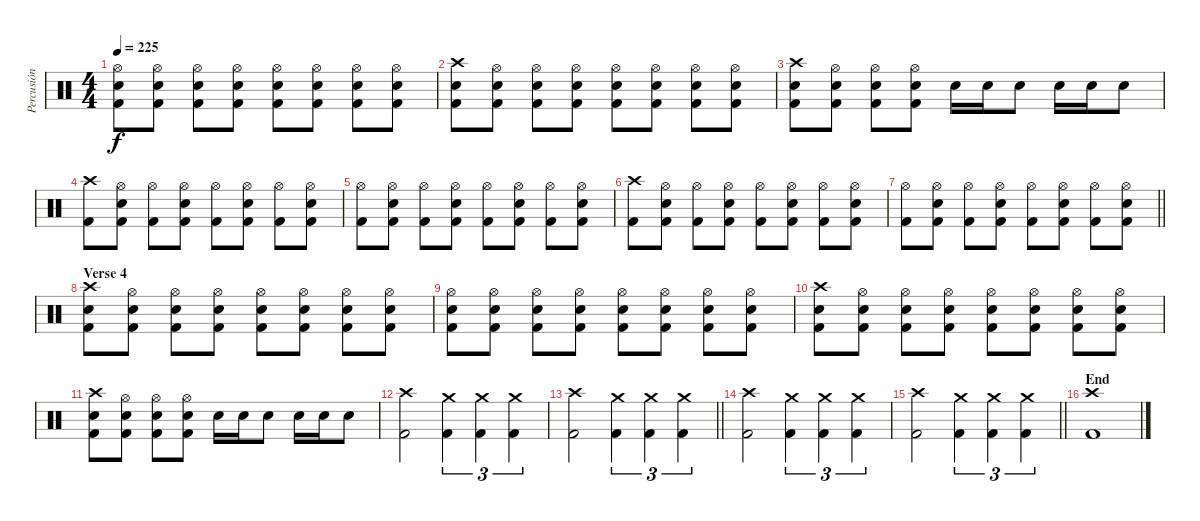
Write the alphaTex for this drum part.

\track ("Percusión" "Percusión") {instrument percussion}
\staff {score}
\articulation defaults
\ts (4 4)
\tempo 225
\clef neutral
\ks c
("Hi-Hat (open)" "Electric Snare (hit)" "Kick (hit) 2").8{dy f} ("Hi-Hat (open)" "Electric Snare (hit)" "Kick (hit) 2").8 ("Hi-Hat (open)" "Electric Snare (hit)" "Kick (hit) 2").8 ("Hi-Hat (open)" "Electric Snare (hit)" "Kick (hit) 2").8 ("Hi-Hat (open)" "Electric Snare (hit)" "Kick (hit) 2").8 ("Hi-Hat (open)" "Electric Snare (hit)" "Kick (hit) 2").8 ("Hi-Hat (open)" "Electric Snare (hit)" "Kick (hit) 2").8 ("Hi-Hat (open)" "Electric Snare (hit)" "Kick (hit) 2").8 |
("Crash high (hit)" "Electric Snare (hit)" "Kick (hit) 2").8 ("Hi-Hat (open)" "Electric Snare (hit)" "Kick (hit) 2").8 ("Hi-Hat (open)" "Electric Snare (hit)" "Kick (hit) 2").8 ("Hi-Hat (open)" "Electric Snare (hit)" "Kick (hit) 2").8 ("Hi-Hat (open)" "Electric Snare (hit)" "Kick (hit) 2").8 ("Hi-Hat (open)" "Electric Snare (hit)" "Kick (hit) 2").8 ("Hi-Hat (open)" "Electric Snare (hit)" "Kick (hit) 2").8 ("Hi-Hat (open)" "Electric Snare (hit)" "Kick (hit) 2").8 |
("Crash high (hit)" "Electric Snare (hit)" "Kick (hit) 2").8 ("Hi-Hat (open)" "Electric Snare (hit)" "Kick (hit) 2").8 ("Hi-Hat (open)" "Electric Snare (hit)" "Kick (hit) 2").8 ("Hi-Hat (open)" "Electric Snare (hit)" "Kick (hit) 2").8 "Electric Snare (hit)".16 "Electric Snare (hit)".16 "Electric Snare (hit)".8 "Electric Snare (hit)".16 "Electric Snare (hit)".16 "Electric Snare (hit)".8 |
("Crash high (hit)" "Kick (hit) 2").8 ("Hi-Hat (open)" "Electric Snare (hit)" "Kick (hit) 2").8 ("Hi-Hat (open)" "Kick (hit) 2").8 ("Hi-Hat (open)" "Electric Snare (hit)" "Kick (hit) 2").8 ("Hi-Hat (open)" "Kick (hit) 2").8 ("Hi-Hat (open)" "Electric Snare (hit)" "Kick (hit) 2").8 ("Hi-Hat (open)" "Kick (hit) 2").8 ("Hi-Hat (open)" "Electric Snare (hit)" "Kick (hit) 2").8 |
("Hi-Hat (open)" "Kick (hit) 2").8 ("Hi-Hat (open)" "Electric Snare (hit)" "Kick (hit) 2").8 ("Hi-Hat (open)" "Kick (hit) 2").8 ("Hi-Hat (open)" "Electric Snare (hit)" "Kick (hit) 2").8 ("Hi-Hat (open)" "Kick (hit) 2").8 ("Hi-Hat (open)" "Electric Snare (hit)" "Kick (hit) 2").8 ("Hi-Hat (open)" "Kick (hit) 2").8 ("Hi-Hat (open)" "Electric Snare (hit)" "Kick (hit) 2").8 |
("Crash high (hit)" "Kick (hit) 2").8 ("Hi-Hat (open)" "Electric Snare (hit)" "Kick (hit) 2").8 ("Hi-Hat (open)" "Kick (hit) 2").8 ("Hi-Hat (open)" "Electric Snare (hit)" "Kick (hit) 2").8 ("Hi-Hat (open)" "Kick (hit) 2").8 ("Hi-Hat (open)" "Electric Snare (hit)" "Kick (hit) 2").8 ("Hi-Hat (open)" "Kick (hit) 2").8 ("Hi-Hat (open)" "Electric Snare (hit)" "Kick (hit) 2").8 |
\barLineRight lightlight
("Hi-Hat (open)" "Kick (hit) 2").8 ("Hi-Hat (open)" "Electric Snare (hit)" "Kick (hit) 2").8 ("Hi-Hat (open)" "Kick (hit) 2").8 ("Hi-Hat (open)" "Electric Snare (hit)" "Kick (hit) 2").8 ("Hi-Hat (open)" "Kick (hit) 2").8 ("Hi-Hat (open)" "Electric Snare (hit)" "Kick (hit) 2").8 ("Hi-Hat (open)" "Kick (hit) 2").8 ("Hi-Hat (open)" "Electric Snare (hit)" "Kick (hit) 2").8 |
\section ("" "Verse 4")
("Crash high (hit)" "Electric Snare (hit)" "Kick (hit) 2").8 ("Hi-Hat (open)" "Electric Snare (hit)" "Kick (hit) 2").8 ("Hi-Hat (open)" "Electric Snare (hit)" "Kick (hit) 2").8 ("Hi-Hat (open)" "Electric Snare (hit)" "Kick (hit) 2").8 ("Hi-Hat (open)" "Electric Snare (hit)" "Kick (hit) 2").8 ("Hi-Hat (open)" "Electric Snare (hit)" "Kick (hit) 2").8 ("Hi-Hat (open)" "Electric Snare (hit)" "Kick (hit) 2").8 ("Hi-Hat (open)" "Electric Snare (hit)" "Kick (hit) 2").8 |
("Hi-Hat (open)" "Electric Snare (hit)" "Kick (hit) 2").8 ("Hi-Hat (open)" "Electric Snare (hit)" "Kick (hit) 2").8 ("Hi-Hat (open)" "Electric Snare (hit)" "Kick (hit) 2").8 ("Hi-Hat (open)" "Electric Snare (hit)" "Kick (hit) 2").8 ("Hi-Hat (open)" "Electric Snare (hit)" "Kick (hit) 2").8 ("Hi-Hat (open)" "Electric Snare (hit)" "Kick (hit) 2").8 ("Hi-Hat (open)" "Electric Snare (hit)" "Kick (hit) 2").8 ("Hi-Hat (open)" "Electric Snare (hit)" "Kick (hit) 2").8 |
("Crash high (hit)" "Electric Snare (hit)" "Kick (hit) 2").8 ("Hi-Hat (open)" "Electric Snare (hit)" "Kick (hit) 2").8 ("Hi-Hat (open)" "Electric Snare (hit)" "Kick (hit) 2").8 ("Hi-Hat (open)" "Electric Snare (hit)" "Kick (hit) 2").8 ("Hi-Hat (open)" "Electric Snare (hit)" "Kick (hit) 2").8 ("Hi-Hat (open)" "Electric Snare (hit)" "Kick (hit) 2").8 ("Hi-Hat (open)" "Electric Snare (hit)" "Kick (hit) 2").8 ("Hi-Hat (open)" "Electric Snare (hit)" "Kick (hit) 2").8 |
("Crash high (hit)" "Electric Snare (hit)" "Kick (hit) 2").8 ("Hi-Hat (open)" "Electric Snare (hit)" "Kick (hit) 2").8 ("Hi-Hat (open)" "Electric Snare (hit)" "Kick (hit) 2").8 ("Hi-Hat (open)" "Electric Snare (hit)" "Kick (hit) 2").8 "Electric Snare (hit)".16 "Electric Snare (hit)".16 "Electric Snare (hit)".8 "Electric Snare (hit)".16 "Electric Snare (hit)".16 "Electric Snare (hit)".8 |
("Crash high (hit)" "Kick (hit) 2").2 ("Crash medium (hit)" "Kick (hit) 2").4{tu (3 2)} ("Crash medium (hit)" "Kick (hit) 2").4{tu (3 2)} ("Crash medium (hit)" "Kick (hit) 2").4{tu (3 2)} |
\barLineRight lightlight
("Crash high (hit)" "Kick (hit) 2").2 ("Crash medium (hit)" "Kick (hit) 2").4{tu (3 2)} ("Crash medium (hit)" "Kick (hit) 2").4{tu (3 2)} ("Crash medium (hit)" "Kick (hit) 2").4{tu (3 2)} |
("Crash high (hit)" "Kick (hit) 2").2 ("Crash medium (hit)" "Kick (hit) 2").4{tu (3 2)} ("Crash medium (hit)" "Kick (hit) 2").4{tu (3 2)} ("Crash medium (hit)" "Kick (hit) 2").4{tu (3 2)} |
\barLineRight lightlight
("Crash high (hit)" "Kick (hit) 2").2 ("Crash medium (hit)" "Kick (hit) 2").4{tu (3 2)} ("Crash medium (hit)" "Kick (hit) 2").4{tu (3 2)} ("Crash medium (hit)" "Kick (hit) 2").4{tu (3 2)} |
\section ("" "End")
("Crash high (hit)" "Kick (hit) 2").1
